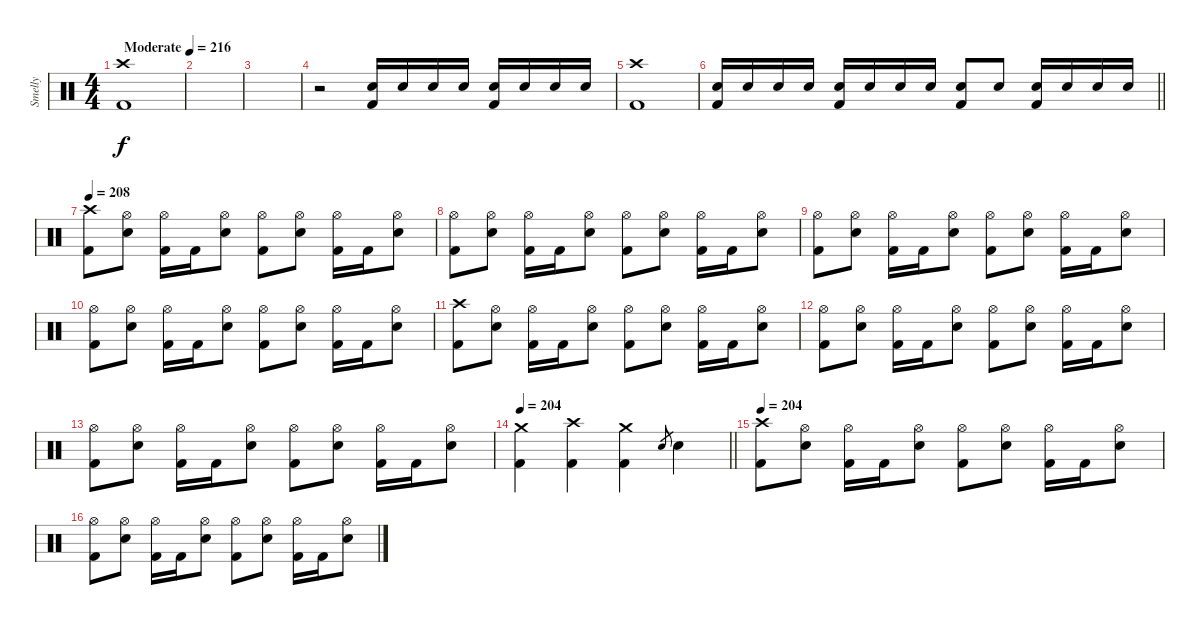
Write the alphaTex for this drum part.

\track ("Smelly" "Smelly") {instrument percussion}
\staff {score}
\articulation defaults
\ts (4 4)
\tempo (216 "Moderate")
\clef neutral
\ks c
("Crash high (hit)" "Kick (hit) 2").1{dy f} |
|
|
r.2 ("Electric Snare (hit)" "Kick (hit) 2").16 "Electric Snare (hit)".16 "Electric Snare (hit)".16 "Electric Snare (hit)".16 ("Electric Snare (hit)" "Kick (hit) 2").16 "Electric Snare (hit)".16 "Electric Snare (hit)".16 "Electric Snare (hit)".16 |
("Crash high (hit)" "Kick (hit) 2").1 |
\barLineRight lightlight
("Electric Snare (hit)" "Kick (hit) 2").16 "Electric Snare (hit)".16 "Electric Snare (hit)".16 "Electric Snare (hit)".16 ("Electric Snare (hit)" "Kick (hit) 2").16 "Electric Snare (hit)".16 "Electric Snare (hit)".16 "Electric Snare (hit)".16 ("Electric Snare (hit)" "Kick (hit) 2").8 "Electric Snare (hit)".8 ("Electric Snare (hit)" "Kick (hit) 2").16 "Electric Snare (hit)".16 "Electric Snare (hit)".16 "Electric Snare (hit)".16 |
\section ("" "")
\tempo 208
("Crash high (hit)" "Kick (hit) 2").8 ("Hi-Hat (open)" "Electric Snare (hit)").8 ("Hi-Hat (open)" "Kick (hit) 2").16 "Kick (hit) 2".16 ("Hi-Hat (open)" "Electric Snare (hit)").8 ("Hi-Hat (open)" "Kick (hit) 2").8 ("Hi-Hat (open)" "Electric Snare (hit)").8 ("Hi-Hat (open)" "Kick (hit) 2").16 "Kick (hit) 2".16 ("Hi-Hat (open)" "Electric Snare (hit)").8 |
("Hi-Hat (open)" "Kick (hit) 2").8 ("Hi-Hat (open)" "Electric Snare (hit)").8 ("Hi-Hat (open)" "Kick (hit) 2").16 "Kick (hit) 2".16 ("Hi-Hat (open)" "Electric Snare (hit)").8 ("Hi-Hat (open)" "Kick (hit) 2").8 ("Hi-Hat (open)" "Electric Snare (hit)").8 ("Hi-Hat (open)" "Kick (hit) 2").16 "Kick (hit) 2".16 ("Hi-Hat (open)" "Electric Snare (hit)").8 |
("Hi-Hat (open)" "Kick (hit) 2").8 ("Hi-Hat (open)" "Electric Snare (hit)").8 ("Hi-Hat (open)" "Kick (hit) 2").16 "Kick (hit) 2".16 ("Hi-Hat (open)" "Electric Snare (hit)").8 ("Hi-Hat (open)" "Kick (hit) 2").8 ("Hi-Hat (open)" "Electric Snare (hit)").8 ("Hi-Hat (open)" "Kick (hit) 2").16 "Kick (hit) 2".16 ("Hi-Hat (open)" "Electric Snare (hit)").8 |
("Hi-Hat (open)" "Kick (hit) 2").8 ("Hi-Hat (open)" "Electric Snare (hit)").8 ("Hi-Hat (open)" "Kick (hit) 2").16 "Kick (hit) 2".16 ("Hi-Hat (open)" "Electric Snare (hit)").8 ("Hi-Hat (open)" "Kick (hit) 2").8 ("Hi-Hat (open)" "Electric Snare (hit)").8 ("Hi-Hat (open)" "Kick (hit) 2").16 "Kick (hit) 2".16 ("Hi-Hat (open)" "Electric Snare (hit)").8 |
("Crash high (hit)" "Kick (hit) 2").8 ("Hi-Hat (open)" "Electric Snare (hit)").8 ("Hi-Hat (open)" "Kick (hit) 2").16 "Kick (hit) 2".16 ("Hi-Hat (open)" "Electric Snare (hit)").8 ("Hi-Hat (open)" "Kick (hit) 2").8 ("Hi-Hat (open)" "Electric Snare (hit)").8 ("Hi-Hat (open)" "Kick (hit) 2").16 "Kick (hit) 2".16 ("Hi-Hat (open)" "Electric Snare (hit)").8 |
("Hi-Hat (open)" "Kick (hit) 2").8 ("Hi-Hat (open)" "Electric Snare (hit)").8 ("Hi-Hat (open)" "Kick (hit) 2").16 "Kick (hit) 2".16 ("Hi-Hat (open)" "Electric Snare (hit)").8 ("Hi-Hat (open)" "Kick (hit) 2").8 ("Hi-Hat (open)" "Electric Snare (hit)").8 ("Hi-Hat (open)" "Kick (hit) 2").16 "Kick (hit) 2".16 ("Hi-Hat (open)" "Electric Snare (hit)").8 |
("Hi-Hat (open)" "Kick (hit) 2").8 ("Hi-Hat (open)" "Electric Snare (hit)").8 ("Hi-Hat (open)" "Kick (hit) 2").16 "Kick (hit) 2".16 ("Hi-Hat (open)" "Electric Snare (hit)").8 ("Hi-Hat (open)" "Kick (hit) 2").8 ("Hi-Hat (open)" "Electric Snare (hit)").8 ("Hi-Hat (open)" "Kick (hit) 2").16 "Kick (hit) 2".16 ("Hi-Hat (open)" "Electric Snare (hit)").8 |
\tempo 204
\barLineRight lightlight
("Crash medium (hit)" "Kick (hit) 2").4 ("Crash high (hit)" "Kick (hit) 2").4 ("Crash medium (hit)" "Kick (hit) 2").4 "Electric Snare (hit)".8{gr} "Electric Snare (hit)".4 |
\section ("" "")
\tempo 204
("Crash high (hit)" "Kick (hit) 2").8 ("Hi-Hat (open)" "Electric Snare (hit)").8 ("Hi-Hat (open)" "Kick (hit) 2").16 "Kick (hit) 2".16 ("Hi-Hat (open)" "Electric Snare (hit)").8 ("Hi-Hat (open)" "Kick (hit) 2").8 ("Hi-Hat (open)" "Electric Snare (hit)").8 ("Hi-Hat (open)" "Kick (hit) 2").16 "Kick (hit) 2".16 ("Hi-Hat (open)" "Electric Snare (hit)").8 |
("Hi-Hat (open)" "Kick (hit) 2").8 ("Hi-Hat (open)" "Electric Snare (hit)").8 ("Hi-Hat (open)" "Kick (hit) 2").16 "Kick (hit) 2".16 ("Hi-Hat (open)" "Electric Snare (hit)").8 ("Hi-Hat (open)" "Kick (hit) 2").8 ("Hi-Hat (open)" "Electric Snare (hit)").8 ("Hi-Hat (open)" "Kick (hit) 2").16 "Kick (hit) 2".16 ("Hi-Hat (open)" "Electric Snare (hit)").8
